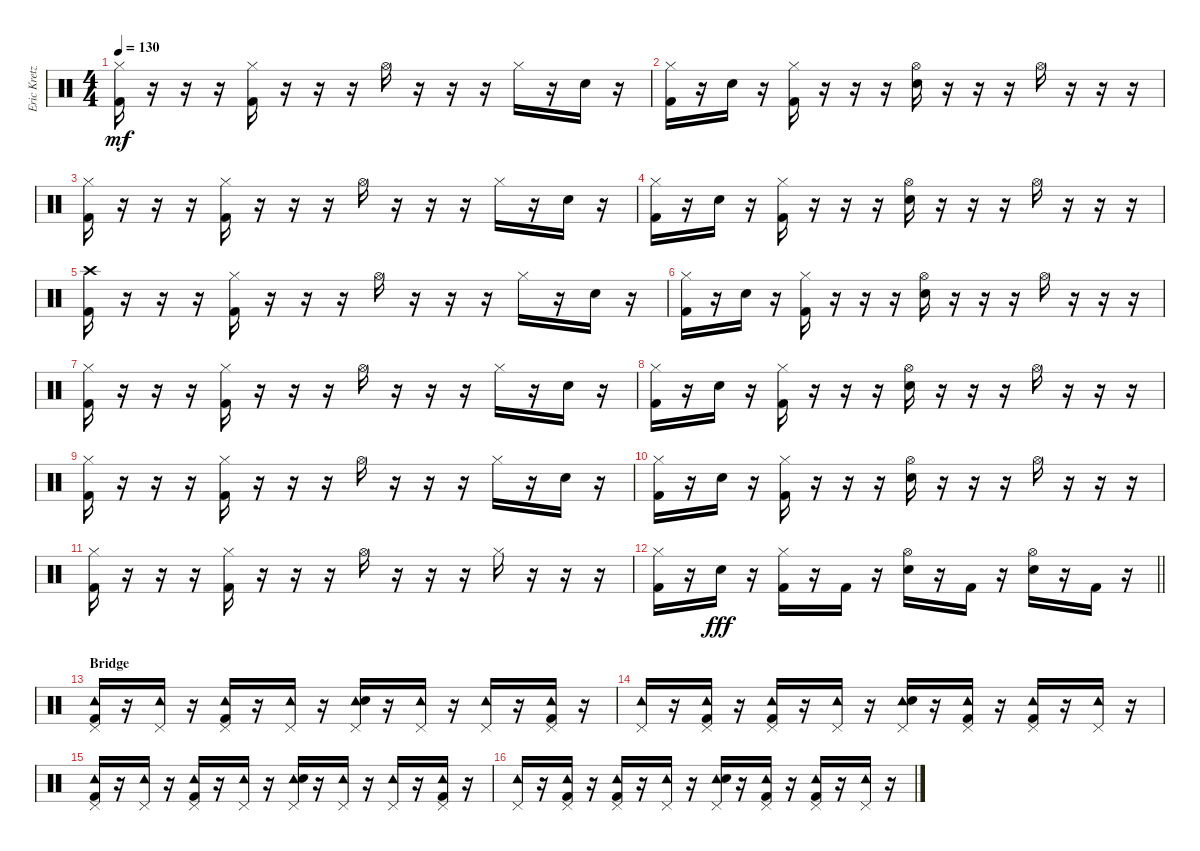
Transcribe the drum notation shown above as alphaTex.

\track ("Eric Kretz (Drums)" "Eric Kretz") {instrument percussion}
\staff {score}
\articulation defaults
\ts (4 4)
\tempo 130
\clef neutral
\ks c
("Hi-Hat (closed)" "Kick (hit) 2").16{dy mf} r.16 r.16 r.16 ("Hi-Hat (closed)" "Kick (hit) 2").16 r.16 r.16 r.16 "Hi-Hat (open)".16 r.16 r.16 r.16 "Hi-Hat (closed)".16 r.16 "Electric Snare (hit)".16 r.16 |
("Hi-Hat (closed)" "Kick (hit) 2").16 r.16 "Electric Snare (hit)".16 r.16 ("Hi-Hat (closed)" "Kick (hit) 2").16 r.16 r.16 r.16 ("Hi-Hat (open)" "Electric Snare (hit)").16 r.16 r.16 r.16 "Hi-Hat (open)".16 r.16 r.16 r.16 |
("Hi-Hat (closed)" "Kick (hit) 2").16 r.16 r.16 r.16 ("Hi-Hat (closed)" "Kick (hit) 2").16 r.16 r.16 r.16 "Hi-Hat (open)".16 r.16 r.16 r.16 "Hi-Hat (closed)".16 r.16 "Electric Snare (hit)".16 r.16 |
("Hi-Hat (closed)" "Kick (hit) 2").16 r.16 "Electric Snare (hit)".16 r.16 ("Hi-Hat (closed)" "Kick (hit) 2").16 r.16 r.16 r.16 ("Hi-Hat (open)" "Electric Snare (hit)").16 r.16 r.16 r.16 "Hi-Hat (open)".16 r.16 r.16 r.16 |
("Crash high (hit)" "Kick (hit) 2").16 r.16 r.16 r.16 ("Hi-Hat (closed)" "Kick (hit) 2").16 r.16 r.16 r.16 "Hi-Hat (open)".16 r.16 r.16 r.16 "Hi-Hat (closed)".16 r.16 "Electric Snare (hit)".16 r.16 |
("Hi-Hat (closed)" "Kick (hit) 2").16 r.16 "Electric Snare (hit)".16 r.16 ("Hi-Hat (closed)" "Kick (hit) 2").16 r.16 r.16 r.16 ("Hi-Hat (open)" "Electric Snare (hit)").16 r.16 r.16 r.16 "Hi-Hat (open)".16 r.16 r.16 r.16 |
("Hi-Hat (closed)" "Kick (hit) 2").16 r.16 r.16 r.16 ("Hi-Hat (closed)" "Kick (hit) 2").16 r.16 r.16 r.16 "Hi-Hat (open)".16 r.16 r.16 r.16 "Hi-Hat (closed)".16 r.16 "Electric Snare (hit)".16 r.16 |
("Hi-Hat (closed)" "Kick (hit) 2").16 r.16 "Electric Snare (hit)".16 r.16 ("Hi-Hat (closed)" "Kick (hit) 2").16 r.16 r.16 r.16 ("Hi-Hat (open)" "Electric Snare (hit)").16 r.16 r.16 r.16 "Hi-Hat (open)".16 r.16 r.16 r.16 |
("Hi-Hat (closed)" "Kick (hit) 2").16 r.16 r.16 r.16 ("Hi-Hat (closed)" "Kick (hit) 2").16 r.16 r.16 r.16 "Hi-Hat (open)".16 r.16 r.16 r.16 "Hi-Hat (closed)".16 r.16 "Electric Snare (hit)".16 r.16 |
("Hi-Hat (closed)" "Kick (hit) 2").16 r.16 "Electric Snare (hit)".16 r.16 ("Hi-Hat (closed)" "Kick (hit) 2").16 r.16 r.16 r.16 ("Hi-Hat (open)" "Electric Snare (hit)").16 r.16 r.16 r.16 "Hi-Hat (open)".16 r.16 r.16 r.16 |
("Hi-Hat (closed)" "Kick (hit) 2").16 r.16 r.16 r.16 ("Hi-Hat (closed)" "Kick (hit) 2").16 r.16 r.16 r.16 "Hi-Hat (open)".16 r.16 r.16 r.16 "Hi-Hat (closed)".16 r.16 r.16 r.16 |
\barLineRight lightlight
("Hi-Hat (closed)" "Kick (hit) 2").16 r.16 "Electric Snare (hit)".16{dy fff} r.16 ("Hi-Hat (closed)" "Kick (hit) 2").16 r.16 "Kick (hit) 2".16 r.16 ("Hi-Hat (open)" "Electric Snare (hit)").16 r.16 "Kick (hit) 2".16 r.16 ("Hi-Hat (open)" "Electric Snare (hit)").16 r.16 "Kick (hit) 2".16 r.16 |
\section ("" "Bridge")
("Pedal Hi-Hat (hit)" "Tambourine (hit)" "Kick (hit) 2").16 r.16 ("Pedal Hi-Hat (hit)" "Tambourine (hit)").16 r.16 ("Pedal Hi-Hat (hit)" "Tambourine (hit)" "Kick (hit) 2").16 r.16 ("Pedal Hi-Hat (hit)" "Tambourine (hit)").16 r.16 ("Pedal Hi-Hat (hit)" "Tambourine (hit)" "Electric Snare (hit)").16 r.16 ("Pedal Hi-Hat (hit)" "Tambourine (hit)").16 r.16 ("Pedal Hi-Hat (hit)" "Tambourine (hit)").16 r.16 ("Pedal Hi-Hat (hit)" "Tambourine (hit)" "Kick (hit) 2").16 r.16 |
("Pedal Hi-Hat (hit)" "Tambourine (hit)").16 r.16 ("Pedal Hi-Hat (hit)" "Tambourine (hit)" "Kick (hit) 2").16 r.16 ("Pedal Hi-Hat (hit)" "Tambourine (hit)" "Kick (hit) 2").16 r.16 ("Pedal Hi-Hat (hit)" "Tambourine (hit)").16 r.16 ("Pedal Hi-Hat (hit)" "Tambourine (hit)" "Electric Snare (hit)").16 r.16 ("Pedal Hi-Hat (hit)" "Tambourine (hit)" "Kick (hit) 2").16 r.16 ("Pedal Hi-Hat (hit)" "Tambourine (hit)" "Kick (hit) 2").16 r.16 ("Pedal Hi-Hat (hit)" "Tambourine (hit)").16 r.16 |
("Pedal Hi-Hat (hit)" "Tambourine (hit)" "Kick (hit) 2").16 r.16 ("Pedal Hi-Hat (hit)" "Tambourine (hit)").16 r.16 ("Pedal Hi-Hat (hit)" "Tambourine (hit)" "Kick (hit) 2").16 r.16 ("Pedal Hi-Hat (hit)" "Tambourine (hit)").16 r.16 ("Pedal Hi-Hat (hit)" "Tambourine (hit)" "Electric Snare (hit)").16 r.16 ("Pedal Hi-Hat (hit)" "Tambourine (hit)").16 r.16 ("Pedal Hi-Hat (hit)" "Tambourine (hit)").16 r.16 ("Pedal Hi-Hat (hit)" "Tambourine (hit)" "Kick (hit) 2").16 r.16 |
("Pedal Hi-Hat (hit)" "Tambourine (hit)").16 r.16 ("Pedal Hi-Hat (hit)" "Tambourine (hit)" "Kick (hit) 2").16 r.16 ("Pedal Hi-Hat (hit)" "Tambourine (hit)" "Kick (hit) 2").16 r.16 ("Pedal Hi-Hat (hit)" "Tambourine (hit)").16 r.16 ("Pedal Hi-Hat (hit)" "Tambourine (hit)" "Electric Snare (hit)").16 r.16 ("Pedal Hi-Hat (hit)" "Tambourine (hit)" "Kick (hit) 2").16 r.16 ("Pedal Hi-Hat (hit)" "Tambourine (hit)" "Kick (hit) 2").16 r.16 ("Pedal Hi-Hat (hit)" "Tambourine (hit)").16 r.16
